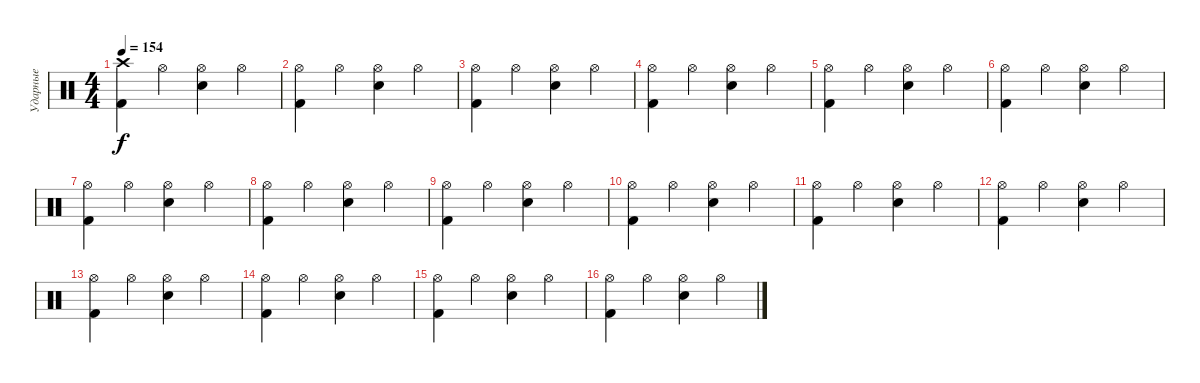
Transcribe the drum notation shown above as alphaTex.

\track ("Ударные" "Ударные") {instrument percussion}
\staff {score}
\articulation defaults
\ts (4 4)
\tempo 154
\clef neutral
\ks c
("Crash high (hit)" "Kick (hit) 2").4{dy f} "Hi-Hat (open)".4 ("Hi-Hat (open)" "Snare (hit) 2").4 "Hi-Hat (open)".4 |
("Hi-Hat (open)" "Kick (hit) 2").4 "Hi-Hat (open)".4 ("Hi-Hat (open)" "Snare (hit) 2").4 "Hi-Hat (open)".4 |
("Hi-Hat (open)" "Kick (hit) 2").4 "Hi-Hat (open)".4 ("Hi-Hat (open)" "Snare (hit) 2").4 "Hi-Hat (open)".4 |
("Hi-Hat (open)" "Kick (hit) 2").4 "Hi-Hat (open)".4 ("Hi-Hat (open)" "Snare (hit) 2").4 "Hi-Hat (open)".4 |
("Hi-Hat (open)" "Kick (hit) 2").4 "Hi-Hat (open)".4 ("Hi-Hat (open)" "Snare (hit) 2").4 "Hi-Hat (open)".4 |
("Hi-Hat (open)" "Kick (hit) 2").4 "Hi-Hat (open)".4 ("Hi-Hat (open)" "Snare (hit) 2").4 "Hi-Hat (open)".4 |
("Hi-Hat (open)" "Kick (hit) 2").4 "Hi-Hat (open)".4 ("Hi-Hat (open)" "Snare (hit) 2").4 "Hi-Hat (open)".4 |
("Hi-Hat (open)" "Kick (hit) 2").4 "Hi-Hat (open)".4 ("Hi-Hat (open)" "Snare (hit) 2").4 "Hi-Hat (open)".4 |
("Hi-Hat (open)" "Kick (hit) 2").4 "Hi-Hat (open)".4 ("Hi-Hat (open)" "Snare (hit) 2").4 "Hi-Hat (open)".4 |
("Hi-Hat (open)" "Kick (hit) 2").4 "Hi-Hat (open)".4 ("Hi-Hat (open)" "Snare (hit) 2").4 "Hi-Hat (open)".4 |
("Hi-Hat (open)" "Kick (hit) 2").4 "Hi-Hat (open)".4 ("Hi-Hat (open)" "Snare (hit) 2").4 "Hi-Hat (open)".4 |
("Hi-Hat (open)" "Kick (hit) 2").4 "Hi-Hat (open)".4 ("Hi-Hat (open)" "Snare (hit) 2").4 "Hi-Hat (open)".4 |
("Hi-Hat (open)" "Kick (hit) 2").4 "Hi-Hat (open)".4 ("Hi-Hat (open)" "Snare (hit) 2").4 "Hi-Hat (open)".4 |
("Hi-Hat (open)" "Kick (hit) 2").4 "Hi-Hat (open)".4 ("Hi-Hat (open)" "Snare (hit) 2").4 "Hi-Hat (open)".4 |
("Hi-Hat (open)" "Kick (hit) 2").4 "Hi-Hat (open)".4 ("Hi-Hat (open)" "Snare (hit) 2").4 "Hi-Hat (open)".4 |
("Hi-Hat (open)" "Kick (hit) 2").4 "Hi-Hat (open)".4 ("Hi-Hat (open)" "Snare (hit) 2").4 "Hi-Hat (open)".4
